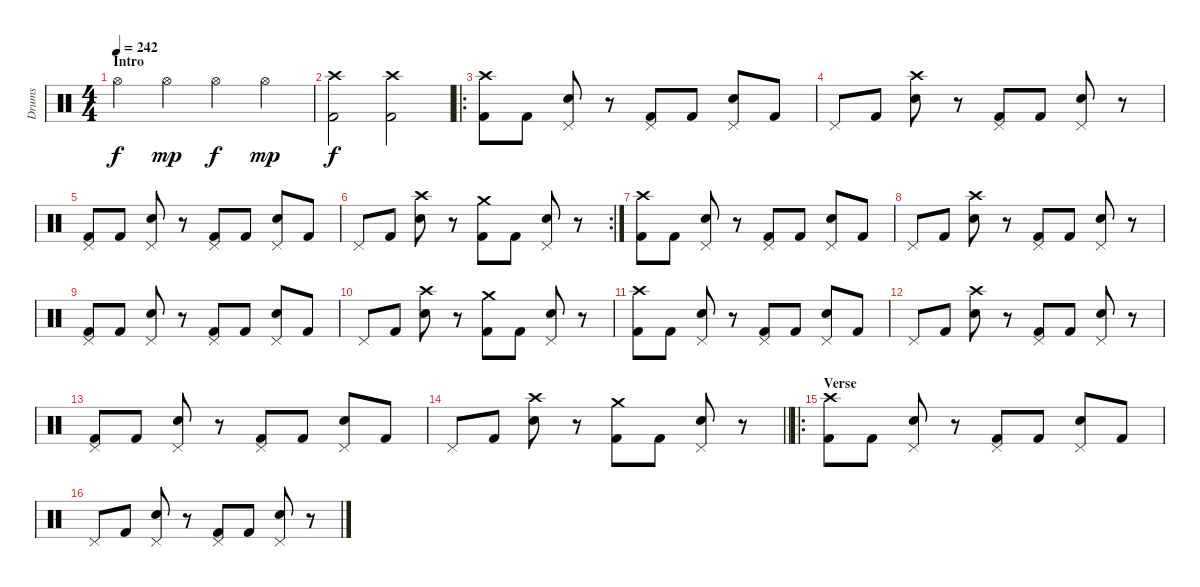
\track ("Drums" "Drums") {instrument percussion}
\staff {score}
\articulation defaults
\ts (4 4)
\section ("" "Intro")
\tempo 242
\clef neutral
\ks c "Hi-Hat (open)".4{dy f} "Hi-Hat (open)".4{dy mp} "Hi-Hat (open)".4{dy f} "Hi-Hat (open)".4{dy mp}
|
("Crash high (hit)" "Kick (hit) 2").2{dy f} ("Crash high (hit)" "Kick (hit) 2").2 |
\ro
("Crash high (hit)" "Kick (hit) 2").8 "Kick (hit) 2".8 ("Pedal Hi-Hat (hit)" "Electric Snare (hit)").8 r.8 ("Pedal Hi-Hat (hit)" "Kick (hit) 2").8 "Kick (hit) 2".8 ("Pedal Hi-Hat (hit)" "Electric Snare (hit)").8 "Kick (hit) 2".8 |
"Pedal Hi-Hat (hit)".8 "Kick (hit) 2".8 ("Electric Snare (hit)" "Crash high (hit)").8 r.8 ("Pedal Hi-Hat (hit)" "Kick (hit) 2").8 "Kick (hit) 2".8 ("Pedal Hi-Hat (hit)" "Electric Snare (hit)").8 r.8 |
("Pedal Hi-Hat (hit)" "Kick (hit) 2").8 "Kick (hit) 2".8 ("Pedal Hi-Hat (hit)" "Electric Snare (hit)").8 r.8 ("Pedal Hi-Hat (hit)" "Kick (hit) 2").8 "Kick (hit) 2".8 ("Pedal Hi-Hat (hit)" "Electric Snare (hit)").8 "Kick (hit) 2".8 |
\rc 2 "Pedal Hi-Hat (hit)".8 "Kick (hit) 2".8
("Electric Snare (hit)" "Crash high (hit)").8 r.8 ("Crash medium (hit)" "Kick (hit) 2").8 "Kick (hit) 2".8 ("Pedal Hi-Hat (hit)" "Electric Snare (hit)").8 r.8 |
("Crash high (hit)" "Kick (hit) 2").8 "Kick (hit) 2".8 ("Pedal Hi-Hat (hit)" "Electric Snare (hit)").8 r.8 ("Pedal Hi-Hat (hit)" "Kick (hit) 2").8 "Kick (hit) 2".8 ("Pedal Hi-Hat (hit)" "Electric Snare (hit)").8 "Kick (hit) 2".8 |
"Pedal Hi-Hat (hit)".8 "Kick (hit) 2".8 ("Electric Snare (hit)" "Crash high (hit)").8 r.8 ("Pedal Hi-Hat (hit)" "Kick (hit) 2").8 "Kick (hit) 2".8 ("Pedal Hi-Hat (hit)" "Electric Snare (hit)").8 r.8 |
("Pedal Hi-Hat (hit)" "Kick (hit) 2").8 "Kick (hit) 2".8 ("Pedal Hi-Hat (hit)" "Electric Snare (hit)").8 r.8 ("Pedal Hi-Hat (hit)" "Kick (hit) 2").8 "Kick (hit) 2".8 ("Pedal Hi-Hat (hit)" "Electric Snare (hit)").8 "Kick (hit) 2".8 |
"Pedal Hi-Hat (hit)".8 "Kick (hit) 2".8 ("Electric Snare (hit)" "Crash high (hit)").8 r.8 ("Crash medium (hit)" "Kick (hit) 2").8 "Kick (hit) 2".8 ("Pedal Hi-Hat (hit)" "Electric Snare (hit)").8 r.8 |
("Crash high (hit)" "Kick (hit) 2").8 "Kick (hit) 2".8 ("Pedal Hi-Hat (hit)" "Electric Snare (hit)").8 r.8 ("Pedal Hi-Hat (hit)" "Kick (hit) 2").8 "Kick (hit) 2".8 ("Pedal Hi-Hat (hit)" "Electric Snare (hit)").8 "Kick (hit) 2".8 |
"Pedal Hi-Hat (hit)".8 "Kick (hit) 2".8 ("Electric Snare (hit)" "Crash high (hit)").8 r.8 ("Pedal Hi-Hat (hit)" "Kick (hit) 2").8 "Kick (hit) 2".8 ("Pedal Hi-Hat (hit)" "Electric Snare (hit)").8 r.8 |
("Pedal Hi-Hat (hit)" "Kick (hit) 2").8 "Kick (hit) 2".8 ("Pedal Hi-Hat (hit)" "Electric Snare (hit)").8 r.8 ("Pedal Hi-Hat (hit)" "Kick (hit) 2").8 "Kick (hit) 2".8 ("Pedal Hi-Hat (hit)" "Electric Snare (hit)").8 "Kick (hit) 2".8 |
\barLineRight lightlight "Pedal Hi-Hat (hit)".8 "Kick (hit) 2".8
("Electric Snare (hit)" "Crash high (hit)").8 r.8 ("Crash medium (hit)" "Kick (hit) 2").8 "Kick (hit) 2".8 ("Pedal Hi-Hat (hit)" "Electric Snare (hit)").8 r.8 |
\ro
\section ("" "Verse")
("Crash high (hit)" "Kick (hit) 2").8 "Kick (hit) 2".8 ("Pedal Hi-Hat (hit)" "Electric Snare (hit)").8 r.8 ("Pedal Hi-Hat (hit)" "Kick (hit) 2").8 "Kick (hit) 2".8 ("Pedal Hi-Hat (hit)" "Electric Snare (hit)").8 "Kick (hit) 2".8 |
"Pedal Hi-Hat (hit)".8 "Kick (hit) 2".8 ("Pedal Hi-Hat (hit)" "Electric Snare (hit)").8 r.8 ("Pedal Hi-Hat (hit)" "Kick (hit) 2").8 "Kick (hit) 2".8 ("Pedal Hi-Hat (hit)" "Electric Snare (hit)").8 r.8
